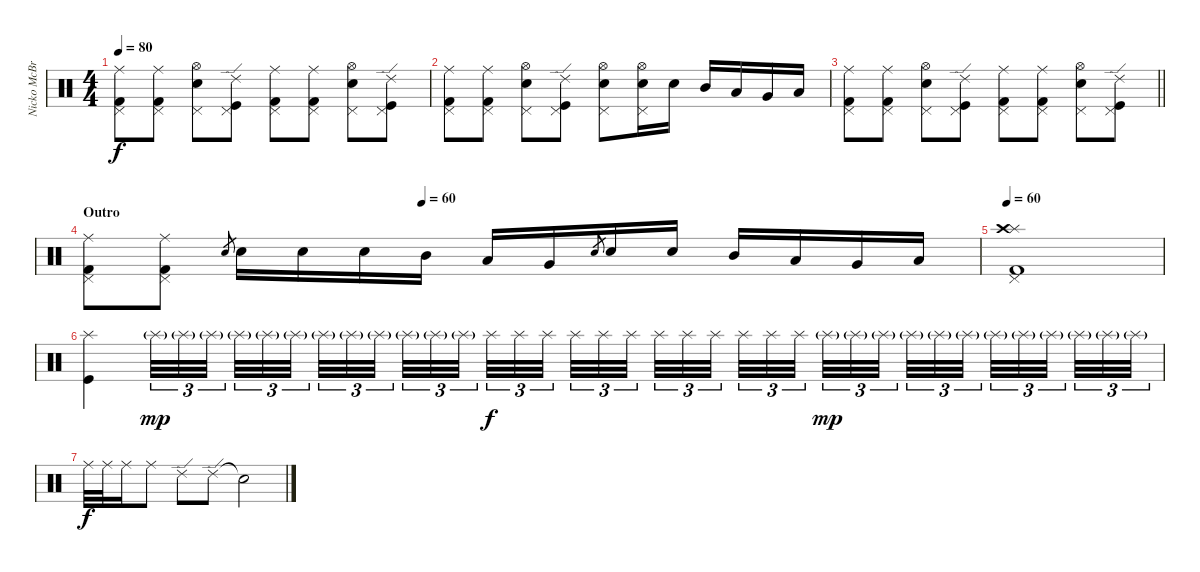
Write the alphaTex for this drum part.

\track ("Nicko McBrain" "Nicko McBr") {instrument percussion}
\staff {score}
\articulation defaults
\ts (4 4)
\tempo 80
\clef neutral
\ks c
("Kick (hit) 2" "Pedal Hi-Hat (hit)" "Ride (middle)").8{dy f} ("Kick (hit) 2" "Pedal Hi-Hat (hit)" "Ride (middle)").8 ("Snare (hit) 2" "Pedal Hi-Hat (hit)" "Hi-Hat (open)").8 ("Kick (hit)" "Pedal Hi-Hat (hit)" "Ride (edge) 2").8 ("Kick (hit) 2" "Pedal Hi-Hat (hit)" "Ride (middle)").8 ("Kick (hit) 2" "Pedal Hi-Hat (hit)" "Ride (middle)").8 ("Snare (hit) 2" "Pedal Hi-Hat (hit)" "Hi-Hat (open)").8 ("Kick (hit)" "Pedal Hi-Hat (hit)" "Ride (edge) 2").8 |
("Kick (hit) 2" "Pedal Hi-Hat (hit)" "Ride (middle)").8 ("Kick (hit) 2" "Pedal Hi-Hat (hit)" "Ride (middle)").8 ("Snare (hit) 2" "Pedal Hi-Hat (hit)" "Hi-Hat (open)").8 ("Kick (hit)" "Pedal Hi-Hat (hit)" "Ride (edge) 2").8 ("Snare (hit) 2" "Pedal Hi-Hat (hit)" "Hi-Hat (open)").8 ("Snare (hit) 2" "Pedal Hi-Hat (hit)" "Hi-Hat (open)").16 "Snare (hit) 2".16 "Mid Tom (hit)".16 "Low Tom (hit)".16 "Very Low Tom (hit)".16 "Low Floor Tom (hit)".16 |
\barLineRight lightlight
("Kick (hit) 2" "Pedal Hi-Hat (hit)" "Ride (middle)").8 ("Kick (hit) 2" "Pedal Hi-Hat (hit)" "Ride (middle)").8 ("Snare (hit) 2" "Pedal Hi-Hat (hit)" "Hi-Hat (open)").8 ("Kick (hit)" "Pedal Hi-Hat (hit)" "Ride (edge) 2").8 ("Kick (hit) 2" "Pedal Hi-Hat (hit)" "Ride (middle)").8 ("Kick (hit) 2" "Pedal Hi-Hat (hit)" "Ride (middle)").8 ("Snare (hit) 2" "Pedal Hi-Hat (hit)" "Hi-Hat (open)").8 ("Kick (hit)" "Pedal Hi-Hat (hit)" "Ride (edge) 2").8 |
\section ("" "Outro")
\tempo (60 0.375)
("Kick (hit) 2" "Pedal Hi-Hat (hit)" "Ride (middle)").8 ("Kick (hit) 2" "Pedal Hi-Hat (hit)" "Ride (middle)").8 "Snare (hit) 2".8{gr} "Snare (hit) 2".16 "Snare (hit) 2".16 "Snare (hit) 2".16 "Mid Tom (hit)".16 "Low Floor Tom (hit)".16 "Very Low Tom (hit)".16 "Snare (hit) 2".8{gr} "Snare (hit) 2".16 "Snare (hit) 2".16 "Mid Tom (hit)".16 "Low Tom (hit)".16 "Very Low Tom (hit)".16 "Low Floor Tom (hit)".16 |
\tempo 60
("Kick (hit) 2" "Pedal Hi-Hat (hit)" "Splash (hit)" "Crash high (hit)").1 |
("Kick (hit)" "Splash (hit)").4 "Splash (hit)"{g}.32{tu (3 2) dy mp} "Splash (hit)"{g}.32{tu (3 2)} "Splash (hit)"{g}.32{tu (3 2) beam splitsecondary} "Splash (hit)"{g}.32{tu (3 2)} "Splash (hit)"{g}.32{tu (3 2)} "Splash (hit)"{g}.32{tu (3 2) beam splitsecondary} "Splash (hit)"{g}.32{tu (3 2)} "Splash (hit)"{g}.32{tu (3 2)} "Splash (hit)"{g}.32{tu (3 2) beam splitsecondary} "Splash (hit)"{g}.32{tu (3 2)} "Splash (hit)"{g}.32{tu (3 2)} "Splash (hit)"{g}.32{tu (3 2)} "Splash (hit)".32{tu (3 2) dy f} "Splash (hit)".32{tu (3 2)} "Splash (hit)".32{tu (3 2) beam splitsecondary} "Splash (hit)".32{tu (3 2)} "Splash (hit)".32{tu (3 2)} "Splash (hit)".32{tu (3 2) beam splitsecondary} "Splash (hit)".32{tu (3 2)} "Splash (hit)".32{tu (3 2)} "Splash (hit)".32{tu (3 2) beam splitsecondary} "Splash (hit)".32{tu (3 2)} "Splash (hit)".32{tu (3 2)} "Splash (hit)".32{tu (3 2)} "Splash (hit)"{g}.32{tu (3 2) dy mp} "Splash (hit)"{g}.32{tu (3 2)} "Splash (hit)"{g}.32{tu (3 2) beam splitsecondary} "Splash (hit)"{g}.32{tu (3 2)} "Splash (hit)"{g}.32{tu (3 2)} "Splash (hit)"{g}.32{tu (3 2) beam splitsecondary} "Splash (hit)"{g}.32{tu (3 2)} "Splash (hit)"{g}.32{tu (3 2)} "Splash (hit)"{g}.32{tu (3 2) beam splitsecondary} "Splash (hit)"{g}.32{tu (3 2)} "Splash (hit)"{g}.32{tu (3 2)} "Splash (hit)"{g}.32{tu (3 2)} |
"Ride (middle)".32{dy f} "Ride (middle)".32 "Ride (middle)".16 "Ride (middle)".8 "Ride (edge) 2".8 "Ride (edge) 2".8 "Snare (hit)"{t}.2
